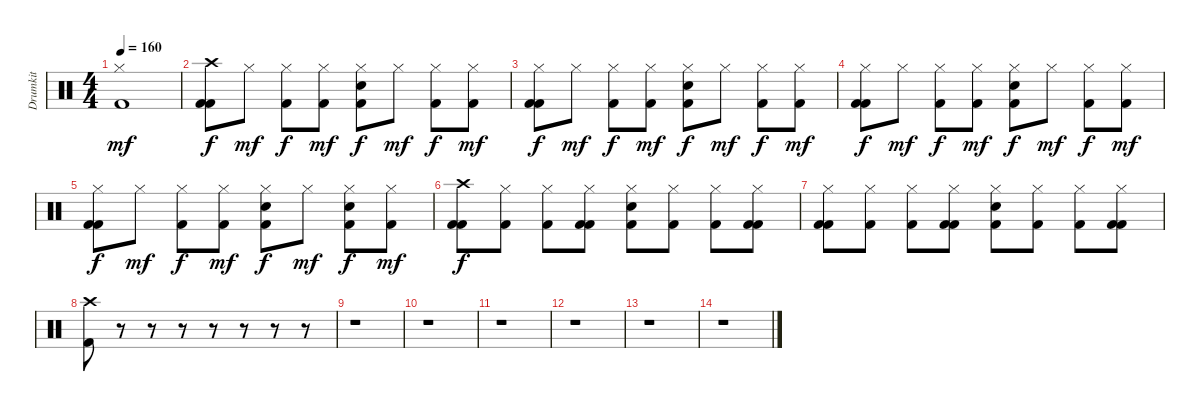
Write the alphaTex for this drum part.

\track ("Drumkit" "Drumkit") {instrument percussion}
\staff {score}
\articulation defaults
\ts (4 4)
\tempo 160
\clef neutral
\ks c
("Hi-Hat (closed)" "Kick (hit) 2").1{dy mf} |
("Crash high (hit)" "Kick (hit) 2" "Kick (hit) 2").8{dy f} "Hi-Hat (closed)".8{dy mf} ("Hi-Hat (closed)" "Kick (hit) 2").8{dy f} ("Hi-Hat (closed)" "Kick (hit) 2").8{dy mf} ("Hi-Hat (closed)" "Snare (hit) 2" "Kick (hit) 2").8{dy f} "Hi-Hat (closed)".8{dy mf} ("Hi-Hat (closed)" "Kick (hit) 2").8{dy f} ("Hi-Hat (closed)" "Kick (hit) 2").8{dy mf} |
("Hi-Hat (closed)" "Kick (hit) 2" "Kick (hit) 2").8{dy f} "Hi-Hat (closed)".8{dy mf} ("Hi-Hat (closed)" "Kick (hit) 2").8{dy f} ("Hi-Hat (closed)" "Kick (hit) 2").8{dy mf} ("Hi-Hat (closed)" "Snare (hit) 2" "Kick (hit) 2").8{dy f} "Hi-Hat (closed)".8{dy mf} ("Hi-Hat (closed)" "Kick (hit) 2").8{dy f} ("Hi-Hat (closed)" "Kick (hit) 2").8{dy mf} |
("Hi-Hat (closed)" "Kick (hit) 2" "Kick (hit) 2").8{dy f} "Hi-Hat (closed)".8{dy mf} ("Hi-Hat (closed)" "Kick (hit) 2").8{dy f} ("Hi-Hat (closed)" "Kick (hit) 2").8{dy mf} ("Hi-Hat (closed)" "Snare (hit) 2" "Kick (hit) 2").8{dy f} "Hi-Hat (closed)".8{dy mf} ("Hi-Hat (closed)" "Kick (hit) 2").8{dy f} ("Hi-Hat (closed)" "Kick (hit) 2").8{dy mf} |
("Hi-Hat (closed)" "Kick (hit) 2" "Kick (hit) 2").8{dy f} "Hi-Hat (closed)".8{dy mf} ("Hi-Hat (closed)" "Kick (hit) 2").8{dy f} ("Hi-Hat (closed)" "Kick (hit) 2").8{dy mf} ("Hi-Hat (closed)" "Snare (hit) 2" "Kick (hit) 2").8{dy f} "Hi-Hat (closed)".8{dy mf} ("Hi-Hat (closed)" "Snare (hit) 2" "Kick (hit) 2").8{dy f} ("Hi-Hat (closed)" "Kick (hit) 2").8{dy mf} |
("Crash high (hit)" "Kick (hit) 2" "Kick (hit) 2").8{dy f} ("Hi-Hat (closed)" "Kick (hit) 2").8 ("Hi-Hat (closed)" "Kick (hit) 2").8 ("Hi-Hat (closed)" "Kick (hit) 2" "Kick (hit) 2").8 ("Hi-Hat (closed)" "Snare (hit) 2" "Kick (hit) 2").8 ("Hi-Hat (closed)" "Kick (hit) 2").8 ("Hi-Hat (closed)" "Kick (hit) 2").8 ("Hi-Hat (closed)" "Kick (hit) 2" "Kick (hit) 2").8 |
("Hi-Hat (closed)" "Kick (hit) 2" "Kick (hit) 2").8 ("Hi-Hat (closed)" "Kick (hit) 2").8 ("Hi-Hat (closed)" "Kick (hit) 2").8 ("Hi-Hat (closed)" "Kick (hit) 2" "Kick (hit) 2").8 ("Hi-Hat (closed)" "Snare (hit) 2" "Kick (hit) 2").8 ("Hi-Hat (closed)" "Kick (hit) 2").8 ("Hi-Hat (closed)" "Kick (hit) 2").8 ("Hi-Hat (closed)" "Kick (hit) 2" "Kick (hit) 2").8 |
("Crash high (hit)" "Kick (hit) 2").8 r.8 r.8 r.8 r.8 r.8 r.8 r.8 |
r.1 |
r.1 |
r.1 |
r.1 |
r.1 |
r.1
